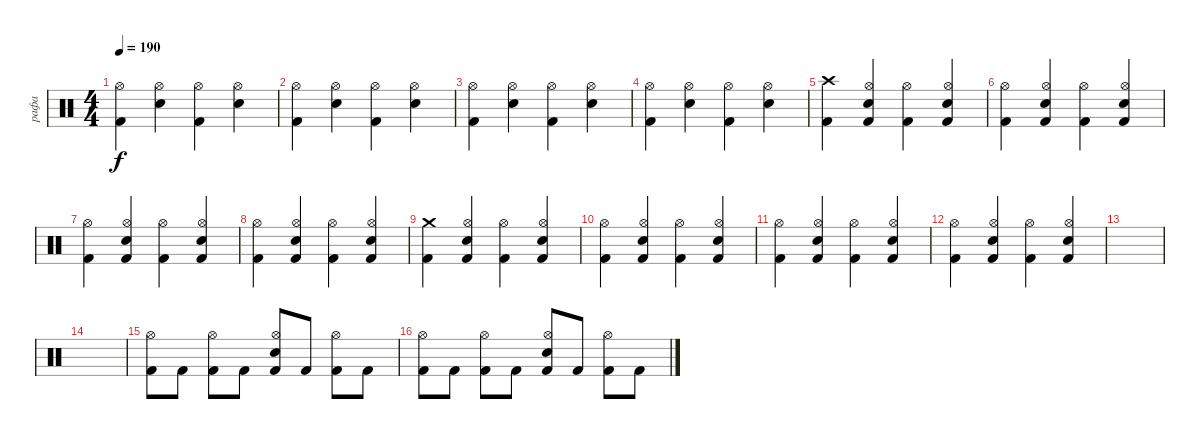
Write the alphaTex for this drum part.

\track ("рафа" "рафа") {instrument percussion}
\staff {score}
\articulation defaults
\ts (4 4)
\tempo 190
\clef neutral
\ks c
("Kick (hit) 2" "Hi-Hat (open)").4{dy f} ("Snare (hit) 2" "Hi-Hat (open)").4 ("Kick (hit) 2" "Hi-Hat (open)").4 ("Snare (hit) 2" "Hi-Hat (open)").4 |
("Kick (hit) 2" "Hi-Hat (open)").4 ("Snare (hit) 2" "Hi-Hat (open)").4 ("Kick (hit) 2" "Hi-Hat (open)").4 ("Snare (hit) 2" "Hi-Hat (open)").4 |
("Kick (hit) 2" "Hi-Hat (open)").4 ("Snare (hit) 2" "Hi-Hat (open)").4 ("Kick (hit) 2" "Hi-Hat (open)").4 ("Snare (hit) 2" "Hi-Hat (open)").4 |
("Kick (hit) 2" "Hi-Hat (open)").4 ("Snare (hit) 2" "Hi-Hat (open)").4 ("Kick (hit) 2" "Hi-Hat (open)").4 ("Snare (hit) 2" "Hi-Hat (open)").4 |
("Kick (hit) 2" "Crash high (hit)").4 ("Kick (hit) 2" "Snare (hit) 2" "Hi-Hat (open)").4 ("Kick (hit) 2" "Hi-Hat (open)").4 ("Kick (hit) 2" "Snare (hit) 2" "Hi-Hat (open)").4 |
("Kick (hit) 2" "Hi-Hat (open)").4 ("Kick (hit) 2" "Snare (hit) 2" "Hi-Hat (open)").4 ("Kick (hit) 2" "Hi-Hat (open)").4 ("Kick (hit) 2" "Snare (hit) 2" "Hi-Hat (open)").4 |
("Kick (hit) 2" "Hi-Hat (open)").4 ("Kick (hit) 2" "Snare (hit) 2" "Hi-Hat (open)").4 ("Kick (hit) 2" "Hi-Hat (open)").4 ("Kick (hit) 2" "Snare (hit) 2" "Hi-Hat (open)").4 |
("Kick (hit) 2" "Hi-Hat (open)").4 ("Kick (hit) 2" "Snare (hit) 2" "Hi-Hat (open)").4 ("Kick (hit) 2" "Hi-Hat (open)").4 ("Kick (hit) 2" "Snare (hit) 2" "Hi-Hat (open)").4 |
("Kick (hit) 2" "Crash medium (hit)").4 ("Kick (hit) 2" "Snare (hit) 2" "Hi-Hat (open)").4 ("Kick (hit) 2" "Hi-Hat (open)").4 ("Kick (hit) 2" "Snare (hit) 2" "Hi-Hat (open)").4 |
("Kick (hit) 2" "Hi-Hat (open)").4 ("Kick (hit) 2" "Snare (hit) 2" "Hi-Hat (open)").4 ("Kick (hit) 2" "Hi-Hat (open)").4 ("Kick (hit) 2" "Snare (hit) 2" "Hi-Hat (open)").4 |
("Kick (hit) 2" "Hi-Hat (open)").4 ("Kick (hit) 2" "Snare (hit) 2" "Hi-Hat (open)").4 ("Kick (hit) 2" "Hi-Hat (open)").4 ("Kick (hit) 2" "Snare (hit) 2" "Hi-Hat (open)").4 |
("Kick (hit) 2" "Hi-Hat (open)").4 ("Kick (hit) 2" "Snare (hit) 2" "Hi-Hat (open)").4 ("Kick (hit) 2" "Hi-Hat (open)").4 ("Kick (hit) 2" "Snare (hit) 2" "Hi-Hat (open)").4 |
|
|
("Kick (hit) 2" "Hi-Hat (open)").8 "Kick (hit) 2".8 ("Kick (hit) 2" "Hi-Hat (open)").8 "Kick (hit) 2".8 ("Kick (hit) 2" "Snare (hit) 2" "Hi-Hat (open)").8 "Kick (hit) 2".8 ("Kick (hit) 2" "Hi-Hat (open)").8 "Kick (hit) 2".8 |
("Kick (hit) 2" "Hi-Hat (open)").8 "Kick (hit) 2".8 ("Kick (hit) 2" "Hi-Hat (open)").8 "Kick (hit) 2".8 ("Kick (hit) 2" "Snare (hit) 2" "Hi-Hat (open)").8 "Kick (hit) 2".8 ("Kick (hit) 2" "Hi-Hat (open)").8 "Kick (hit) 2".8
